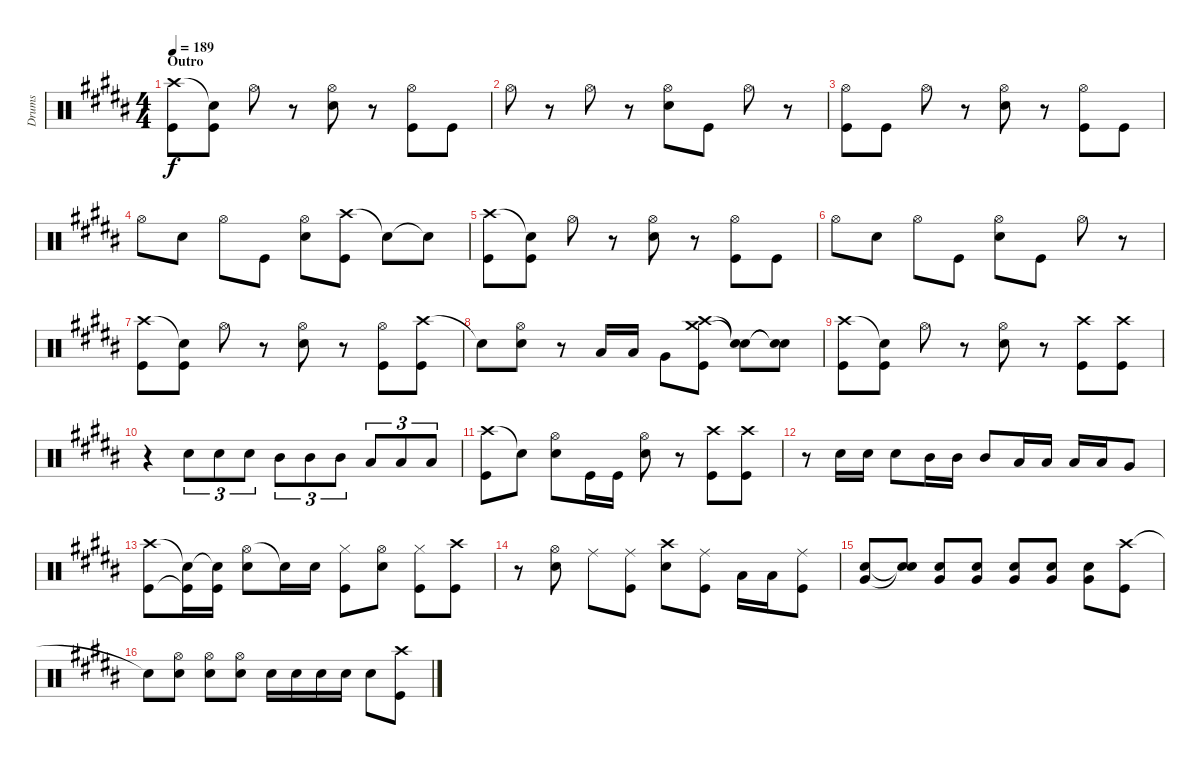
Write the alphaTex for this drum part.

\track ("Drums" "Drums") {instrument percussion}
\staff {score}
\articulation defaults
\ts (4 4)
\section ("" "Outro")
\tempo 189
\clef neutral
\ks b
("Crash high (hit)" "Kick (hit)").8{dy f} ("Snare (hit)"{t} "Kick (hit)").8 "Hi-Hat (open)".8 r.8 ("Hi-Hat (open)" "Snare (hit) 2").8 r.8 ("Hi-Hat (open)" "Kick (hit)").8 "Kick (hit)".8 |
"Hi-Hat (open)".8 r.8 "Hi-Hat (open)".8 r.8 ("Hi-Hat (open)" "Snare (hit) 2").8 "Kick (hit)".8 "Hi-Hat (open)".8 r.8 |
("Hi-Hat (open)" "Kick (hit)").8 "Kick (hit)".8 "Hi-Hat (open)".8 r.8 ("Hi-Hat (open)" "Snare (hit) 2").8 r.8 ("Hi-Hat (open)" "Kick (hit)").8 "Kick (hit)".8 |
"Hi-Hat (open)".8 "Snare (hit) 2".8 "Hi-Hat (open)".8 "Kick (hit)".8 ("Hi-Hat (open)" "Snare (hit) 2").8 ("Crash high (hit)" "Kick (hit)").8 "Snare (hit)"{t}.8 "Snare (hit)"{t}.8 |
("Crash high (hit)" "Kick (hit)").8 ("Snare (hit)"{t} "Kick (hit)").8 "Hi-Hat (open)".8 r.8 ("Hi-Hat (open)" "Snare (hit) 2").8 r.8 ("Hi-Hat (open)" "Kick (hit)").8 "Kick (hit)".8 |
"Hi-Hat (open)".8 "Snare (hit) 2".8 "Hi-Hat (open)".8 "Kick (hit)".8 ("Hi-Hat (open)" "Snare (hit) 2").8 "Kick (hit)".8 "Hi-Hat (open)".8 r.8 |
("Crash high (hit)" "Kick (hit)").8 ("Snare (hit)"{t} "Kick (hit)").8 "Hi-Hat (open)".8 r.8 ("Hi-Hat (open)" "Snare (hit) 2").8 r.8 ("Hi-Hat (open)" "Kick (hit)").8 ("Crash high (hit)" "Kick (hit)").8 |
"Snare (hit)"{t}.8 ("Hi-Hat (open)" "Snare (hit) 2").8 r.8 "Low Tom (hit)".16 "Low Tom (hit)".16 "Very Low Tom (hit)".8 ("Crash high (hit)" "Crash medium (hit)" "Kick (hit)").8 ("Snare (hit)"{t} "Snare (hit)"{t}).8 ("Snare (hit)"{t} "Snare (hit)"{t}).8 |
("Crash high (hit)" "Kick (hit)").8 ("Snare (hit)"{t} "Kick (hit)").8 "Hi-Hat (open)".8 r.8 ("Hi-Hat (open)" "Snare (hit) 2").8 r.8 ("Crash high (hit)" "Kick (hit)").8 ("Crash high (hit)" "Kick (hit)").8 |
r.4 "Snare (hit) 2".8{tu (3 2)} "Snare (hit) 2".8{tu (3 2)} "Snare (hit) 2".8{tu (3 2)} "Mid Tom (hit)".8{tu (3 2)} "Mid Tom (hit)".8{tu (3 2)} "Mid Tom (hit)".8{tu (3 2)} "Low Tom (hit)".8{tu (3 2)} "Low Tom (hit)".8{tu (3 2)} "Low Tom (hit)".8{tu (3 2)} |
("Crash high (hit)" "Kick (hit)").8 "Snare (hit)"{t}.8 ("Hi-Hat (open)" "Snare (hit) 2").8 "Kick (hit)".16 "Kick (hit)".16 ("Hi-Hat (open)" "Snare (hit) 2").8 r.8 ("Crash high (hit)" "Kick (hit)").8 ("Crash high (hit)" "Kick (hit)").8 |
r.8 "Snare (hit) 2".16 "Snare (hit) 2".16 "Snare (hit) 2".8 "Mid Tom (hit)".16 "Mid Tom (hit)".16 "Mid Tom (hit)".8 "Low Tom (hit)".16 "Low Tom (hit)".16 "Low Tom (hit)".16 "Low Tom (hit)".16 "Very Low Tom (hit)".8 |
("Crash high (hit)" "Kick (hit)").8 ("Snare (hit)"{t} "Kick (hit)"{t}).16 ("Snare (hit)"{t} "Kick (hit)").16 ("Hi-Hat (open)" "Snare (hit) 2").8 "Snare (hit)"{t}.16 "Snare (hit) 2".16 ("Hi-Hat (closed)" "Kick (hit)").8 ("Hi-Hat (open)" "Snare (hit) 2").8 ("Hi-Hat (closed)" "Kick (hit)").8 ("Crash high (hit)" "Kick (hit)").8 |
r.8 ("Hi-Hat (open)" "Snare (hit) 2").8 "Ride (middle)".8 ("Ride (middle)" "Kick (hit)").8 ("Crash high (hit)" "Snare (hit) 2").8 ("Ride (middle)" "Kick (hit)").8 "Low Tom (hit)".16 "Low Tom (hit)".16 ("Ride (middle)" "Kick (hit)").8 |
("Snare (hit) 2" "Very Low Tom (hit)").8 ("Snare (hit)"{t} "Snare (hit)"{t}).8 ("Snare (hit) 2" "Very Low Tom (hit)").8 ("Snare (hit) 2" "Very Low Tom (hit)").8 ("Snare (hit) 2" "Very Low Tom (hit)").8 ("Snare (hit) 2" "Very Low Tom (hit)").8 ("Snare (hit) 2" "Very Low Tom (hit)").8 ("Crash high (hit)" "Kick (hit)").8 |
"Snare (hit)"{t}.8 ("Hi-Hat (open)" "Snare (hit) 2").8 ("Hi-Hat (open)" "Snare (hit) 2").8 ("Hi-Hat (open)" "Snare (hit) 2").8 "Snare (hit) 2".16 "Snare (hit) 2".16 "Snare (hit) 2".16 "Snare (hit) 2".16 "Snare (hit) 2".8 ("Crash high (hit)" "Kick (hit)").8
